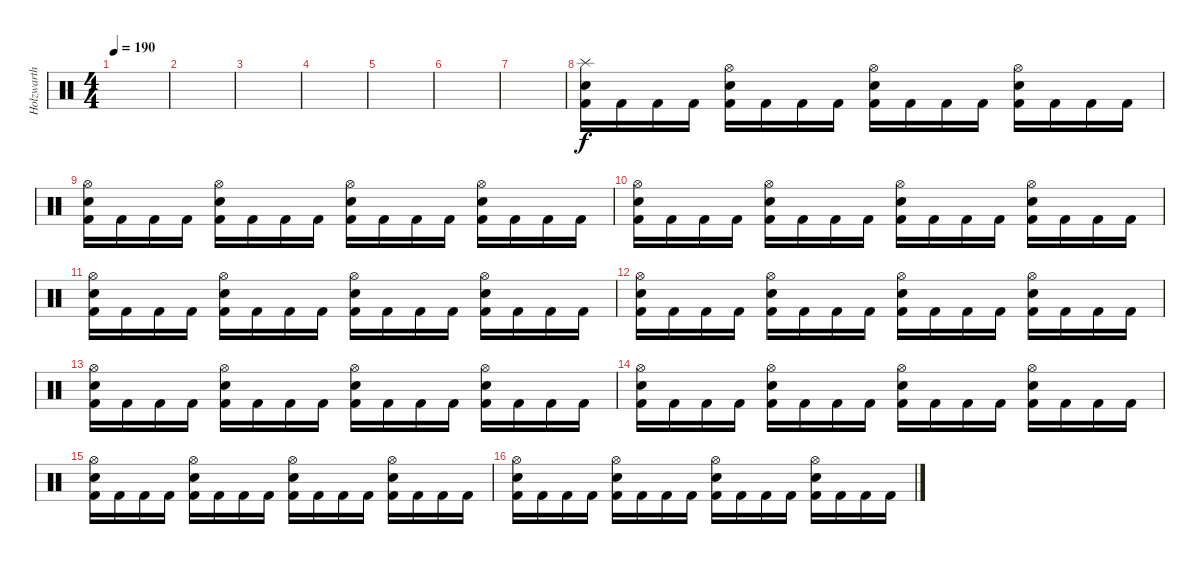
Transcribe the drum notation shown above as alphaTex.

\track ("Holzwarth" "Holzwarth") {instrument percussion}
\staff {score}
\articulation defaults
\ts (4 4)
\tempo 190
\clef neutral
\ks c
|
|
|
|
|
|
|
("Splash (hit)" "Snare (hit) 2" "Kick (hit) 2").16 "Kick (hit) 2".16 "Kick (hit) 2".16 "Kick (hit) 2".16 ("Hi-Hat (open)" "Snare (hit) 2" "Kick (hit) 2").16 "Kick (hit) 2".16 "Kick (hit) 2".16 "Kick (hit) 2".16 ("Hi-Hat (open)" "Snare (hit) 2" "Kick (hit) 2").16 "Kick (hit) 2".16 "Kick (hit) 2".16 "Kick (hit) 2".16 ("Hi-Hat (open)" "Snare (hit) 2" "Kick (hit) 2").16 "Kick (hit) 2".16 "Kick (hit) 2".16 "Kick (hit) 2".16 |
("Hi-Hat (open)" "Snare (hit) 2" "Kick (hit) 2").16 "Kick (hit) 2".16 "Kick (hit) 2".16 "Kick (hit) 2".16 ("Hi-Hat (open)" "Snare (hit) 2" "Kick (hit) 2").16 "Kick (hit) 2".16 "Kick (hit) 2".16 "Kick (hit) 2".16 ("Hi-Hat (open)" "Snare (hit) 2" "Kick (hit) 2").16 "Kick (hit) 2".16 "Kick (hit) 2".16 "Kick (hit) 2".16 ("Hi-Hat (open)" "Snare (hit) 2" "Kick (hit) 2").16 "Kick (hit) 2".16 "Kick (hit) 2".16 "Kick (hit) 2".16 |
("Hi-Hat (open)" "Snare (hit) 2" "Kick (hit) 2").16 "Kick (hit) 2".16 "Kick (hit) 2".16 "Kick (hit) 2".16 ("Hi-Hat (open)" "Snare (hit) 2" "Kick (hit) 2").16 "Kick (hit) 2".16 "Kick (hit) 2".16 "Kick (hit) 2".16 ("Hi-Hat (open)" "Snare (hit) 2" "Kick (hit) 2").16 "Kick (hit) 2".16 "Kick (hit) 2".16 "Kick (hit) 2".16 ("Hi-Hat (open)" "Snare (hit) 2" "Kick (hit) 2").16 "Kick (hit) 2".16 "Kick (hit) 2".16 "Kick (hit) 2".16 |
("Hi-Hat (open)" "Snare (hit) 2" "Kick (hit) 2").16 "Kick (hit) 2".16 "Kick (hit) 2".16 "Kick (hit) 2".16 ("Hi-Hat (open)" "Snare (hit) 2" "Kick (hit) 2").16 "Kick (hit) 2".16 "Kick (hit) 2".16 "Kick (hit) 2".16 ("Hi-Hat (open)" "Snare (hit) 2" "Kick (hit) 2").16 "Kick (hit) 2".16 "Kick (hit) 2".16 "Kick (hit) 2".16 ("Hi-Hat (open)" "Snare (hit) 2" "Kick (hit) 2").16 "Kick (hit) 2".16 "Kick (hit) 2".16 "Kick (hit) 2".16 |
("Hi-Hat (open)" "Snare (hit) 2" "Kick (hit) 2").16 "Kick (hit) 2".16 "Kick (hit) 2".16 "Kick (hit) 2".16 ("Hi-Hat (open)" "Snare (hit) 2" "Kick (hit) 2").16 "Kick (hit) 2".16 "Kick (hit) 2".16 "Kick (hit) 2".16 ("Hi-Hat (open)" "Snare (hit) 2" "Kick (hit) 2").16 "Kick (hit) 2".16 "Kick (hit) 2".16 "Kick (hit) 2".16 ("Hi-Hat (open)" "Snare (hit) 2" "Kick (hit) 2").16 "Kick (hit) 2".16 "Kick (hit) 2".16 "Kick (hit) 2".16 |
("Hi-Hat (open)" "Snare (hit) 2" "Kick (hit) 2").16 "Kick (hit) 2".16 "Kick (hit) 2".16 "Kick (hit) 2".16 ("Hi-Hat (open)" "Snare (hit) 2" "Kick (hit) 2").16 "Kick (hit) 2".16 "Kick (hit) 2".16 "Kick (hit) 2".16 ("Hi-Hat (open)" "Snare (hit) 2" "Kick (hit) 2").16 "Kick (hit) 2".16 "Kick (hit) 2".16 "Kick (hit) 2".16 ("Hi-Hat (open)" "Snare (hit) 2" "Kick (hit) 2").16 "Kick (hit) 2".16 "Kick (hit) 2".16 "Kick (hit) 2".16 |
("Hi-Hat (open)" "Snare (hit) 2" "Kick (hit) 2").16 "Kick (hit) 2".16 "Kick (hit) 2".16 "Kick (hit) 2".16 ("Hi-Hat (open)" "Snare (hit) 2" "Kick (hit) 2").16 "Kick (hit) 2".16 "Kick (hit) 2".16 "Kick (hit) 2".16 ("Hi-Hat (open)" "Snare (hit) 2" "Kick (hit) 2").16 "Kick (hit) 2".16 "Kick (hit) 2".16 "Kick (hit) 2".16 ("Hi-Hat (open)" "Snare (hit) 2" "Kick (hit) 2").16 "Kick (hit) 2".16 "Kick (hit) 2".16 "Kick (hit) 2".16 |
("Hi-Hat (open)" "Snare (hit) 2" "Kick (hit) 2").16 "Kick (hit) 2".16 "Kick (hit) 2".16 "Kick (hit) 2".16 ("Hi-Hat (open)" "Snare (hit) 2" "Kick (hit) 2").16 "Kick (hit) 2".16 "Kick (hit) 2".16 "Kick (hit) 2".16 ("Hi-Hat (open)" "Snare (hit) 2" "Kick (hit) 2").16 "Kick (hit) 2".16 "Kick (hit) 2".16 "Kick (hit) 2".16 ("Hi-Hat (open)" "Snare (hit) 2" "Kick (hit) 2").16 "Kick (hit) 2".16 "Kick (hit) 2".16 "Kick (hit) 2".16 |
("Hi-Hat (open)" "Snare (hit) 2" "Kick (hit) 2").16 "Kick (hit) 2".16 "Kick (hit) 2".16 "Kick (hit) 2".16 ("Hi-Hat (open)" "Snare (hit) 2" "Kick (hit) 2").16 "Kick (hit) 2".16 "Kick (hit) 2".16 "Kick (hit) 2".16 ("Hi-Hat (open)" "Snare (hit) 2" "Kick (hit) 2").16 "Kick (hit) 2".16 "Kick (hit) 2".16 "Kick (hit) 2".16 ("Hi-Hat (open)" "Snare (hit) 2" "Kick (hit) 2").16 "Kick (hit) 2".16 "Kick (hit) 2".16 "Kick (hit) 2".16
